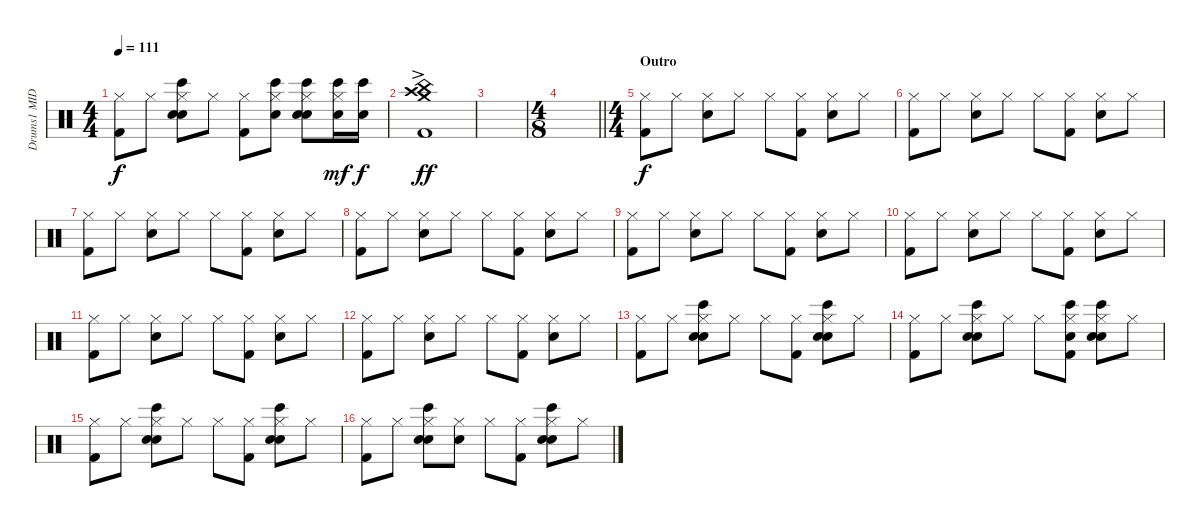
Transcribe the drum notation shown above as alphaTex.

\track ("Drums1 MIDI" "Drums1 MID") {instrument percussion}
\staff {score}
\articulation defaults
\ts (4 4)
\tempo 111
\clef neutral
\ks c
("Hi-Hat (closed)" "Kick (hit) 2").8{dy f} "Hi-Hat (closed)".8 ("Hi-Hat (closed)" "Bongo High (hit)" "Hand Clap (hit)" "Snare (hit) 2").8 "Hi-Hat (closed)".8 ("Hi-Hat (closed)" "Kick (hit) 2").8 ("Hi-Hat (closed)" "Bongo High (hit)" "Hand Clap (hit)").8 ("Hi-Hat (closed)" "Bongo High (hit)" "Hand Clap (hit)" "Snare (hit) 2").8 ("Hi-Hat (closed)" "Bongo High (hit)" "Hand Clap (hit)").16{dy mf} ("Bongo High (hit)" "Hand Clap (hit)").16{dy f} |
("Crash high (hit)"{ac} "Crash medium (hit)"{ac} "China (hit)"{ac} "Kick (hit) 2").1{dy ff} |
|
\ts (4 8)
\barLineRight lightlight
|
\ts (4 4)
\section ("" "Outro")
("Hi-Hat (closed)" "Kick (hit) 2").8{dy f} "Hi-Hat (closed)".8 ("Hi-Hat (closed)" "Snare (hit) 2").8 "Hi-Hat (closed)".8 "Hi-Hat (closed)".8 ("Hi-Hat (closed)" "Kick (hit) 2").8 ("Hi-Hat (closed)" "Snare (hit) 2").8 "Hi-Hat (closed)".8 |
("Hi-Hat (closed)" "Kick (hit) 2").8 "Hi-Hat (closed)".8 ("Hi-Hat (closed)" "Snare (hit) 2").8 "Hi-Hat (closed)".8 "Hi-Hat (closed)".8 ("Hi-Hat (closed)" "Kick (hit) 2").8 ("Hi-Hat (closed)" "Snare (hit) 2").8 "Hi-Hat (closed)".8 |
("Hi-Hat (closed)" "Kick (hit) 2").8 "Hi-Hat (closed)".8 ("Hi-Hat (closed)" "Snare (hit) 2").8 "Hi-Hat (closed)".8 "Hi-Hat (closed)".8 ("Hi-Hat (closed)" "Kick (hit) 2").8 ("Hi-Hat (closed)" "Snare (hit) 2").8 "Hi-Hat (closed)".8 |
("Hi-Hat (closed)" "Kick (hit) 2").8 "Hi-Hat (closed)".8 ("Hi-Hat (closed)" "Snare (hit) 2").8 "Hi-Hat (closed)".8 "Hi-Hat (closed)".8 ("Hi-Hat (closed)" "Kick (hit) 2").8 ("Hi-Hat (closed)" "Snare (hit) 2").8 "Hi-Hat (closed)".8 |
("Hi-Hat (closed)" "Kick (hit) 2").8 "Hi-Hat (closed)".8 ("Hi-Hat (closed)" "Snare (hit) 2").8 "Hi-Hat (closed)".8 "Hi-Hat (closed)".8 ("Hi-Hat (closed)" "Kick (hit) 2").8 ("Hi-Hat (closed)" "Snare (hit) 2").8 "Hi-Hat (closed)".8 |
("Hi-Hat (closed)" "Kick (hit) 2").8 "Hi-Hat (closed)".8 ("Hi-Hat (closed)" "Snare (hit) 2").8 "Hi-Hat (closed)".8 "Hi-Hat (closed)".8 ("Hi-Hat (closed)" "Kick (hit) 2").8 ("Hi-Hat (closed)" "Snare (hit) 2").8 "Hi-Hat (closed)".8 |
("Hi-Hat (closed)" "Kick (hit) 2").8 "Hi-Hat (closed)".8 ("Hi-Hat (closed)" "Snare (hit) 2").8 "Hi-Hat (closed)".8 "Hi-Hat (closed)".8 ("Hi-Hat (closed)" "Kick (hit) 2").8 ("Hi-Hat (closed)" "Snare (hit) 2").8 "Hi-Hat (closed)".8 |
("Hi-Hat (closed)" "Kick (hit) 2").8 "Hi-Hat (closed)".8 ("Hi-Hat (closed)" "Snare (hit) 2").8 "Hi-Hat (closed)".8 "Hi-Hat (closed)".8 ("Hi-Hat (closed)" "Kick (hit) 2").8 ("Hi-Hat (closed)" "Snare (hit) 2").8 "Hi-Hat (closed)".8 |
("Hi-Hat (closed)" "Kick (hit) 2").8 "Hi-Hat (closed)".8 ("Hi-Hat (closed)" "Bongo High (hit)" "Hand Clap (hit)" "Snare (hit) 2").8 "Hi-Hat (closed)".8 "Hi-Hat (closed)".8 ("Hi-Hat (closed)" "Kick (hit) 2").8 ("Hi-Hat (closed)" "Bongo High (hit)" "Hand Clap (hit)" "Snare (hit) 2").8 "Hi-Hat (closed)".8 |
("Hi-Hat (closed)" "Kick (hit) 2").8 "Hi-Hat (closed)".8 ("Hi-Hat (closed)" "Bongo High (hit)" "Hand Clap (hit)" "Snare (hit) 2").8 "Hi-Hat (closed)".8 "Hi-Hat (closed)".8 ("Hi-Hat (closed)" "Bongo High (hit)" "Hand Clap (hit)" "Kick (hit) 2").8 ("Hi-Hat (closed)" "Bongo High (hit)" "Hand Clap (hit)" "Snare (hit) 2").8 "Hi-Hat (closed)".8 |
("Hi-Hat (closed)" "Kick (hit) 2").8 "Hi-Hat (closed)".8 ("Hi-Hat (closed)" "Bongo High (hit)" "Hand Clap (hit)" "Snare (hit) 2").8 "Hi-Hat (closed)".8 "Hi-Hat (closed)".8 ("Hi-Hat (closed)" "Kick (hit) 2").8 ("Hi-Hat (closed)" "Bongo High (hit)" "Hand Clap (hit)" "Snare (hit) 2").8 "Hi-Hat (closed)".8 |
("Hi-Hat (closed)" "Kick (hit) 2").8 "Hi-Hat (closed)".8 ("Hi-Hat (closed)" "Bongo High (hit)" "Hand Clap (hit)" "Snare (hit) 2").8 ("Hi-Hat (closed)" "Hand Clap (hit)").8 "Hi-Hat (closed)".8 ("Hi-Hat (closed)" "Kick (hit) 2").8 ("Hi-Hat (closed)" "Bongo High (hit)" "Hand Clap (hit)" "Snare (hit) 2").8 "Hi-Hat (closed)".8
